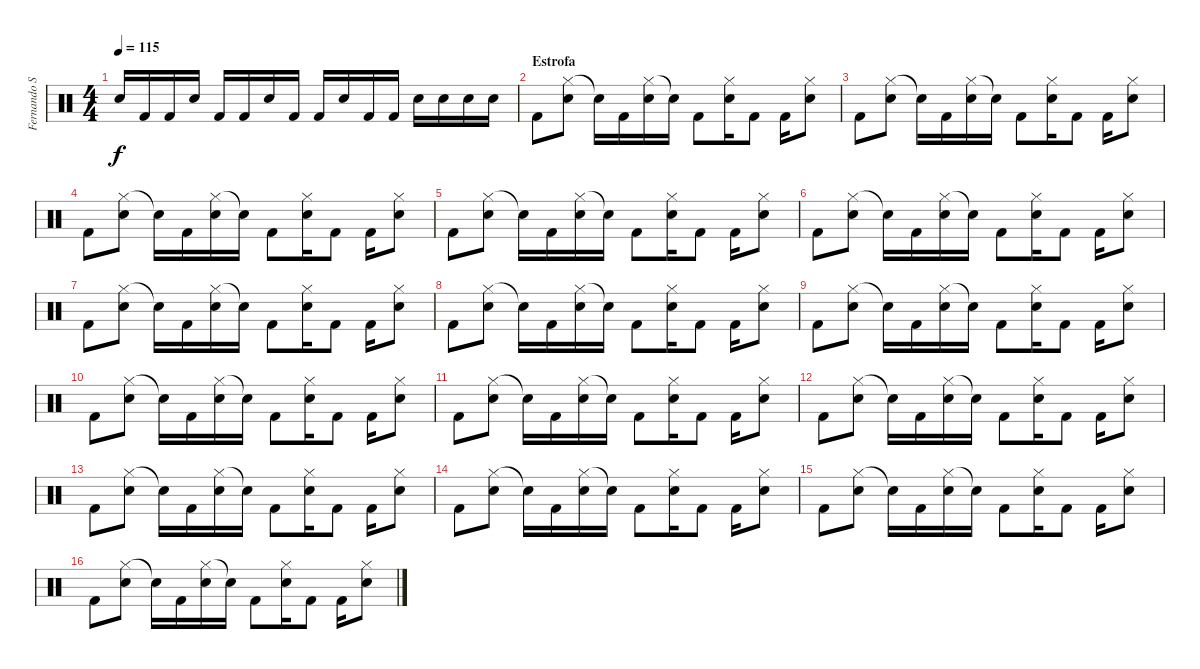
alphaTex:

\track ("Fernando Scarcella" "Fernando S") {instrument percussion}
\staff {score}
\articulation defaults
\ts (4 4)
\tempo 115
\clef neutral
\ks c "Snare (hit) 2".16{dy f} "Kick (hit) 2".16 "Kick (hit) 2".16 "Snare (hit) 2".16 "Kick (hit) 2".16 "Kick (hit) 2".16 "Snare (hit) 2".16 "Kick (hit) 2".16 "Kick (hit) 2".16 "Snare (hit) 2".16 "Kick (hit) 2".16 "Kick (hit) 2".16 "Snare (hit) 2".16 "Snare (hit) 2".16 "Snare (hit) 2".16 "Snare (hit) 2".16
|
\section ("" "Estrofa")
"Kick (hit) 2".8 ("Hi-Hat (closed)" "Snare (hit) 2").8 "Snare (hit)"{t}.16 "Kick (hit) 2".16 ("Hi-Hat (closed)" "Snare (hit) 2").16 "Snare (hit)"{t}.16 "Kick (hit) 2".8 ("Hi-Hat (closed)" "Snare (hit) 2").16 "Kick (hit) 2".8 "Kick (hit) 2".16 ("Hi-Hat (closed)" "Snare (hit) 2").8 |
"Kick (hit) 2".8 ("Hi-Hat (closed)" "Snare (hit) 2").8 "Snare (hit)"{t}.16 "Kick (hit) 2".16 ("Hi-Hat (closed)" "Snare (hit) 2").16 "Snare (hit)"{t}.16 "Kick (hit) 2".8 ("Hi-Hat (closed)" "Snare (hit) 2").16 "Kick (hit) 2".8 "Kick (hit) 2".16 ("Hi-Hat (closed)" "Snare (hit) 2").8 |
"Kick (hit) 2".8 ("Hi-Hat (closed)" "Snare (hit) 2").8 "Snare (hit)"{t}.16 "Kick (hit) 2".16 ("Hi-Hat (closed)" "Snare (hit) 2").16 "Snare (hit)"{t}.16 "Kick (hit) 2".8 ("Hi-Hat (closed)" "Snare (hit) 2").16 "Kick (hit) 2".8 "Kick (hit) 2".16 ("Hi-Hat (closed)" "Snare (hit) 2").8 |
"Kick (hit) 2".8 ("Hi-Hat (closed)" "Snare (hit) 2").8 "Snare (hit)"{t}.16 "Kick (hit) 2".16 ("Hi-Hat (closed)" "Snare (hit) 2").16 "Snare (hit)"{t}.16 "Kick (hit) 2".8 ("Hi-Hat (closed)" "Snare (hit) 2").16 "Kick (hit) 2".8 "Kick (hit) 2".16 ("Hi-Hat (closed)" "Snare (hit) 2").8 |
"Kick (hit) 2".8 ("Hi-Hat (closed)" "Snare (hit) 2").8 "Snare (hit)"{t}.16 "Kick (hit) 2".16 ("Hi-Hat (closed)" "Snare (hit) 2").16 "Snare (hit)"{t}.16 "Kick (hit) 2".8 ("Hi-Hat (closed)" "Snare (hit) 2").16 "Kick (hit) 2".8 "Kick (hit) 2".16 ("Hi-Hat (closed)" "Snare (hit) 2").8 |
"Kick (hit) 2".8 ("Hi-Hat (closed)" "Snare (hit) 2").8 "Snare (hit)"{t}.16 "Kick (hit) 2".16 ("Hi-Hat (closed)" "Snare (hit) 2").16 "Snare (hit)"{t}.16 "Kick (hit) 2".8 ("Hi-Hat (closed)" "Snare (hit) 2").16 "Kick (hit) 2".8 "Kick (hit) 2".16 ("Hi-Hat (closed)" "Snare (hit) 2").8 |
"Kick (hit) 2".8 ("Hi-Hat (closed)" "Snare (hit) 2").8 "Snare (hit)"{t}.16 "Kick (hit) 2".16 ("Hi-Hat (closed)" "Snare (hit) 2").16 "Snare (hit)"{t}.16 "Kick (hit) 2".8 ("Hi-Hat (closed)" "Snare (hit) 2").16 "Kick (hit) 2".8 "Kick (hit) 2".16 ("Hi-Hat (closed)" "Snare (hit) 2").8 |
"Kick (hit) 2".8 ("Hi-Hat (closed)" "Snare (hit) 2").8 "Snare (hit)"{t}.16 "Kick (hit) 2".16 ("Hi-Hat (closed)" "Snare (hit) 2").16 "Snare (hit)"{t}.16 "Kick (hit) 2".8 ("Hi-Hat (closed)" "Snare (hit) 2").16 "Kick (hit) 2".8 "Kick (hit) 2".16 ("Hi-Hat (closed)" "Snare (hit) 2").8 |
"Kick (hit) 2".8 ("Hi-Hat (closed)" "Snare (hit) 2").8 "Snare (hit)"{t}.16 "Kick (hit) 2".16 ("Hi-Hat (closed)" "Snare (hit) 2").16 "Snare (hit)"{t}.16 "Kick (hit) 2".8 ("Hi-Hat (closed)" "Snare (hit) 2").16 "Kick (hit) 2".8 "Kick (hit) 2".16 ("Hi-Hat (closed)" "Snare (hit) 2").8 |
"Kick (hit) 2".8 ("Hi-Hat (closed)" "Snare (hit) 2").8 "Snare (hit)"{t}.16 "Kick (hit) 2".16 ("Hi-Hat (closed)" "Snare (hit) 2").16 "Snare (hit)"{t}.16 "Kick (hit) 2".8 ("Hi-Hat (closed)" "Snare (hit) 2").16 "Kick (hit) 2".8 "Kick (hit) 2".16 ("Hi-Hat (closed)" "Snare (hit) 2").8 |
"Kick (hit) 2".8 ("Hi-Hat (closed)" "Snare (hit) 2").8 "Snare (hit)"{t}.16 "Kick (hit) 2".16 ("Hi-Hat (closed)" "Snare (hit) 2").16 "Snare (hit)"{t}.16 "Kick (hit) 2".8 ("Hi-Hat (closed)" "Snare (hit) 2").16 "Kick (hit) 2".8 "Kick (hit) 2".16 ("Hi-Hat (closed)" "Snare (hit) 2").8 |
"Kick (hit) 2".8 ("Hi-Hat (closed)" "Snare (hit) 2").8 "Snare (hit)"{t}.16 "Kick (hit) 2".16 ("Hi-Hat (closed)" "Snare (hit) 2").16 "Snare (hit)"{t}.16 "Kick (hit) 2".8 ("Hi-Hat (closed)" "Snare (hit) 2").16 "Kick (hit) 2".8 "Kick (hit) 2".16 ("Hi-Hat (closed)" "Snare (hit) 2").8 |
"Kick (hit) 2".8 ("Hi-Hat (closed)" "Snare (hit) 2").8 "Snare (hit)"{t}.16 "Kick (hit) 2".16 ("Hi-Hat (closed)" "Snare (hit) 2").16 "Snare (hit)"{t}.16 "Kick (hit) 2".8 ("Hi-Hat (closed)" "Snare (hit) 2").16 "Kick (hit) 2".8 "Kick (hit) 2".16 ("Hi-Hat (closed)" "Snare (hit) 2").8 |
"Kick (hit) 2".8 ("Hi-Hat (closed)" "Snare (hit) 2").8 "Snare (hit)"{t}.16 "Kick (hit) 2".16 ("Hi-Hat (closed)" "Snare (hit) 2").16 "Snare (hit)"{t}.16 "Kick (hit) 2".8 ("Hi-Hat (closed)" "Snare (hit) 2").16 "Kick (hit) 2".8 "Kick (hit) 2".16 ("Hi-Hat (closed)" "Snare (hit) 2").8 |
"Kick (hit) 2".8 ("Hi-Hat (closed)" "Snare (hit) 2").8 "Snare (hit)"{t}.16 "Kick (hit) 2".16 ("Hi-Hat (closed)" "Snare (hit) 2").16 "Snare (hit)"{t}.16 "Kick (hit) 2".8 ("Hi-Hat (closed)" "Snare (hit) 2").16 "Kick (hit) 2".8 "Kick (hit) 2".16 ("Hi-Hat (closed)" "Snare (hit) 2").8
